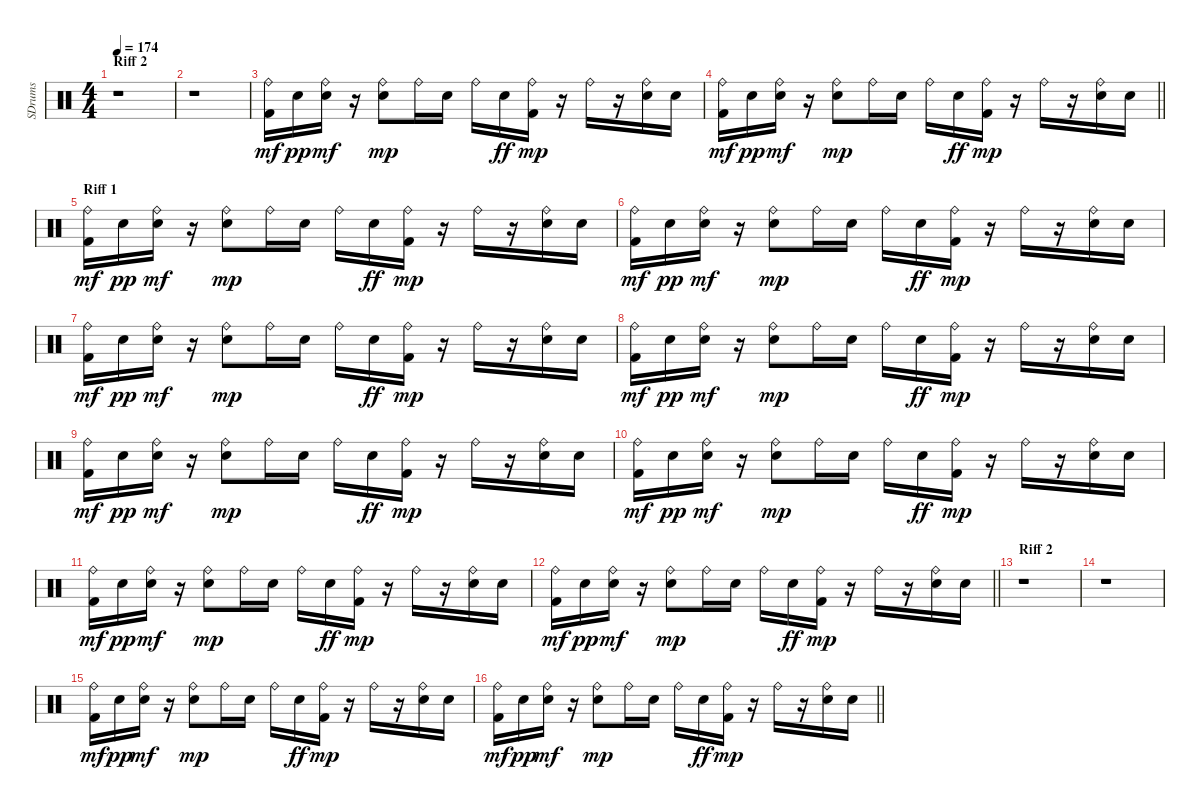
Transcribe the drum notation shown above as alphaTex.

\track ("SDrums" "SDrums") {instrument percussion}
\staff {score}
\articulation defaults
\ts (4 4)
\section ("" "Riff 2")
\tempo 174
\clef neutral
\ks c
r.1{dy mp} |
r.1 |
("Kick (hit) 2" "Ride (bell)").16{dy mf} "Snare (hit) 2".16{dy pp} ("Snare (hit) 2" "Ride (bell)").16{dy mf} r.16 ("Snare (hit) 2" "Ride (bell)").8{dy mp} "Ride (bell)".16 "Snare (hit) 2".16 "Ride (bell)".16 "Snare (hit) 2".16{dy ff} ("Kick (hit) 2" "Ride (bell)").16{dy mp} r.16 "Ride (bell)".16 r.16 ("Snare (hit) 2" "Ride (bell)").16 "Snare (hit) 2".16 |
\barLineRight lightlight
("Kick (hit) 2" "Ride (bell)").16{dy mf} "Snare (hit) 2".16{dy pp} ("Snare (hit) 2" "Ride (bell)").16{dy mf} r.16 ("Snare (hit) 2" "Ride (bell)").8{dy mp} "Ride (bell)".16 "Snare (hit) 2".16 "Ride (bell)".16 "Snare (hit) 2".16{dy ff} ("Kick (hit) 2" "Ride (bell)").16{dy mp} r.16 "Ride (bell)".16 r.16 ("Snare (hit) 2" "Ride (bell)").16 "Snare (hit) 2".16 |
\section ("" "Riff 1")
("Kick (hit) 2" "Ride (bell)").16{dy mf} "Snare (hit) 2".16{dy pp} ("Snare (hit) 2" "Ride (bell)").16{dy mf} r.16 ("Snare (hit) 2" "Ride (bell)").8{dy mp} "Ride (bell)".16 "Snare (hit) 2".16 "Ride (bell)".16 "Snare (hit) 2".16{dy ff} ("Kick (hit) 2" "Ride (bell)").16{dy mp} r.16 "Ride (bell)".16 r.16 ("Snare (hit) 2" "Ride (bell)").16 "Snare (hit) 2".16 |
("Kick (hit) 2" "Ride (bell)").16{dy mf} "Snare (hit) 2".16{dy pp} ("Snare (hit) 2" "Ride (bell)").16{dy mf} r.16 ("Snare (hit) 2" "Ride (bell)").8{dy mp} "Ride (bell)".16 "Snare (hit) 2".16 "Ride (bell)".16 "Snare (hit) 2".16{dy ff} ("Kick (hit) 2" "Ride (bell)").16{dy mp} r.16 "Ride (bell)".16 r.16 ("Snare (hit) 2" "Ride (bell)").16 "Snare (hit) 2".16 |
("Kick (hit) 2" "Ride (bell)").16{dy mf} "Snare (hit) 2".16{dy pp} ("Snare (hit) 2" "Ride (bell)").16{dy mf} r.16 ("Snare (hit) 2" "Ride (bell)").8{dy mp} "Ride (bell)".16 "Snare (hit) 2".16 "Ride (bell)".16 "Snare (hit) 2".16{dy ff} ("Kick (hit) 2" "Ride (bell)").16{dy mp} r.16 "Ride (bell)".16 r.16 ("Snare (hit) 2" "Ride (bell)").16 "Snare (hit) 2".16 |
("Kick (hit) 2" "Ride (bell)").16{dy mf} "Snare (hit) 2".16{dy pp} ("Snare (hit) 2" "Ride (bell)").16{dy mf} r.16 ("Snare (hit) 2" "Ride (bell)").8{dy mp} "Ride (bell)".16 "Snare (hit) 2".16 "Ride (bell)".16 "Snare (hit) 2".16{dy ff} ("Kick (hit) 2" "Ride (bell)").16{dy mp} r.16 "Ride (bell)".16 r.16 ("Snare (hit) 2" "Ride (bell)").16 "Snare (hit) 2".16 |
("Kick (hit) 2" "Ride (bell)").16{dy mf} "Snare (hit) 2".16{dy pp} ("Snare (hit) 2" "Ride (bell)").16{dy mf} r.16 ("Snare (hit) 2" "Ride (bell)").8{dy mp} "Ride (bell)".16 "Snare (hit) 2".16 "Ride (bell)".16 "Snare (hit) 2".16{dy ff} ("Kick (hit) 2" "Ride (bell)").16{dy mp} r.16 "Ride (bell)".16 r.16 ("Snare (hit) 2" "Ride (bell)").16 "Snare (hit) 2".16 |
("Kick (hit) 2" "Ride (bell)").16{dy mf} "Snare (hit) 2".16{dy pp} ("Snare (hit) 2" "Ride (bell)").16{dy mf} r.16 ("Snare (hit) 2" "Ride (bell)").8{dy mp} "Ride (bell)".16 "Snare (hit) 2".16 "Ride (bell)".16 "Snare (hit) 2".16{dy ff} ("Kick (hit) 2" "Ride (bell)").16{dy mp} r.16 "Ride (bell)".16 r.16 ("Snare (hit) 2" "Ride (bell)").16 "Snare (hit) 2".16 |
("Kick (hit) 2" "Ride (bell)").16{dy mf} "Snare (hit) 2".16{dy pp} ("Snare (hit) 2" "Ride (bell)").16{dy mf} r.16 ("Snare (hit) 2" "Ride (bell)").8{dy mp} "Ride (bell)".16 "Snare (hit) 2".16 "Ride (bell)".16 "Snare (hit) 2".16{dy ff} ("Kick (hit) 2" "Ride (bell)").16{dy mp} r.16 "Ride (bell)".16 r.16 ("Snare (hit) 2" "Ride (bell)").16 "Snare (hit) 2".16 |
\barLineRight lightlight
("Kick (hit) 2" "Ride (bell)").16{dy mf} "Snare (hit) 2".16{dy pp} ("Snare (hit) 2" "Ride (bell)").16{dy mf} r.16 ("Snare (hit) 2" "Ride (bell)").8{dy mp} "Ride (bell)".16 "Snare (hit) 2".16 "Ride (bell)".16 "Snare (hit) 2".16{dy ff} ("Kick (hit) 2" "Ride (bell)").16{dy mp} r.16 "Ride (bell)".16 r.16 ("Snare (hit) 2" "Ride (bell)").16 "Snare (hit) 2".16 |
\section ("" "Riff 2")
r.1 |
r.1 |
("Kick (hit) 2" "Ride (bell)").16{dy mf} "Snare (hit) 2".16{dy pp} ("Snare (hit) 2" "Ride (bell)").16{dy mf} r.16 ("Snare (hit) 2" "Ride (bell)").8{dy mp} "Ride (bell)".16 "Snare (hit) 2".16 "Ride (bell)".16 "Snare (hit) 2".16{dy ff} ("Kick (hit) 2" "Ride (bell)").16{dy mp} r.16 "Ride (bell)".16 r.16 ("Snare (hit) 2" "Ride (bell)").16 "Snare (hit) 2".16 |
\barLineRight lightlight
("Kick (hit) 2" "Ride (bell)").16{dy mf} "Snare (hit) 2".16{dy pp} ("Snare (hit) 2" "Ride (bell)").16{dy mf} r.16 ("Snare (hit) 2" "Ride (bell)").8{dy mp} "Ride (bell)".16 "Snare (hit) 2".16 "Ride (bell)".16 "Snare (hit) 2".16{dy ff} ("Kick (hit) 2" "Ride (bell)").16{dy mp} r.16 "Ride (bell)".16 r.16 ("Snare (hit) 2" "Ride (bell)").16 "Snare (hit) 2".16
